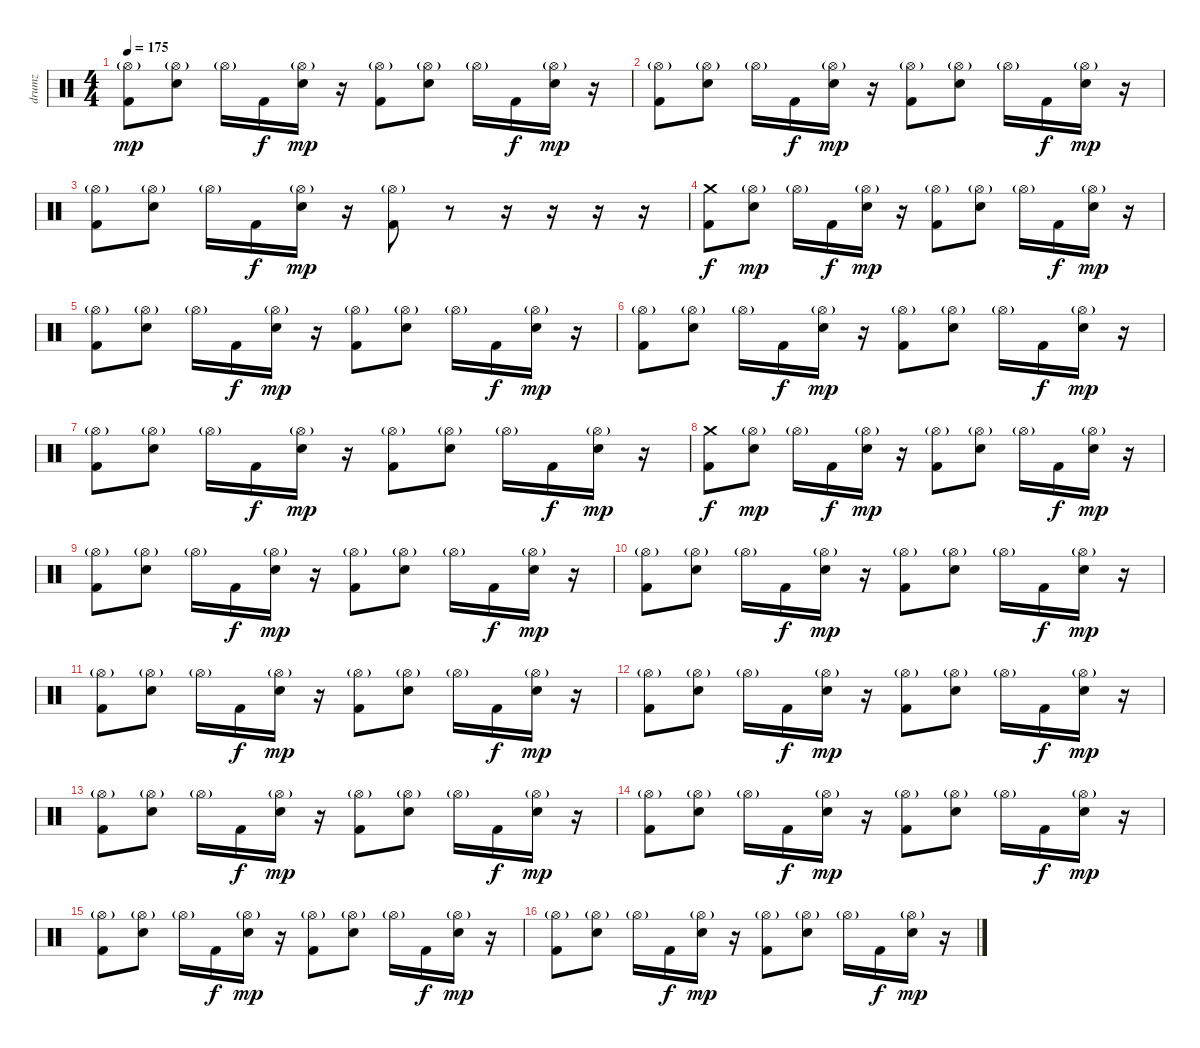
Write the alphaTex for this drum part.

\track ("drumz" "drumz") {instrument percussion}
\staff {score}
\articulation defaults
\ts (4 4)
\tempo 175
\clef neutral
\ks c
("Hi-Hat (open)"{g} "Kick (hit) 2").8{dy mp} ("Hi-Hat (open)"{g} "Electric Snare (hit)").8 "Hi-Hat (open)"{g}.16 "Kick (hit) 2".16{dy f} ("Hi-Hat (open)"{g} "Electric Snare (hit)").16{dy mp} r.16 ("Hi-Hat (open)"{g} "Kick (hit) 2").8 ("Hi-Hat (open)"{g} "Electric Snare (hit)").8 "Hi-Hat (open)"{g}.16 "Kick (hit) 2".16{dy f} ("Hi-Hat (open)"{g} "Electric Snare (hit)").16{dy mp} r.16 |
("Hi-Hat (open)"{g} "Kick (hit) 2").8 ("Hi-Hat (open)"{g} "Electric Snare (hit)").8 "Hi-Hat (open)"{g}.16 "Kick (hit) 2".16{dy f} ("Hi-Hat (open)"{g} "Electric Snare (hit)").16{dy mp} r.16 ("Hi-Hat (open)"{g} "Kick (hit) 2").8 ("Hi-Hat (open)"{g} "Electric Snare (hit)").8 "Hi-Hat (open)"{g}.16 "Kick (hit) 2".16{dy f} ("Hi-Hat (open)"{g} "Electric Snare (hit)").16{dy mp} r.16 |
("Hi-Hat (open)"{g} "Kick (hit) 2").8 ("Hi-Hat (open)"{g} "Electric Snare (hit)").8 "Hi-Hat (open)"{g}.16 "Kick (hit) 2".16{dy f} ("Hi-Hat (open)"{g} "Electric Snare (hit)").16{dy mp} r.16 ("Hi-Hat (open)"{g} "Kick (hit) 2").8 r.8 r.16 r.16 r.16 r.16 |
\section ("" "")
("Crash medium (hit)" "Kick (hit) 2").8{dy f} ("Hi-Hat (open)"{g} "Electric Snare (hit)").8{dy mp} "Hi-Hat (open)"{g}.16 "Kick (hit) 2".16{dy f} ("Hi-Hat (open)"{g} "Electric Snare (hit)").16{dy mp} r.16 ("Hi-Hat (open)"{g} "Kick (hit) 2").8 ("Hi-Hat (open)"{g} "Electric Snare (hit)").8 "Hi-Hat (open)"{g}.16 "Kick (hit) 2".16{dy f} ("Hi-Hat (open)"{g} "Electric Snare (hit)").16{dy mp} r.16 |
("Hi-Hat (open)"{g} "Kick (hit) 2").8 ("Hi-Hat (open)"{g} "Electric Snare (hit)").8 "Hi-Hat (open)"{g}.16 "Kick (hit) 2".16{dy f} ("Hi-Hat (open)"{g} "Electric Snare (hit)").16{dy mp} r.16 ("Hi-Hat (open)"{g} "Kick (hit) 2").8 ("Hi-Hat (open)"{g} "Electric Snare (hit)").8 "Hi-Hat (open)"{g}.16 "Kick (hit) 2".16{dy f} ("Hi-Hat (open)"{g} "Electric Snare (hit)").16{dy mp} r.16 |
("Hi-Hat (open)"{g} "Kick (hit) 2").8 ("Hi-Hat (open)"{g} "Electric Snare (hit)").8 "Hi-Hat (open)"{g}.16 "Kick (hit) 2".16{dy f} ("Hi-Hat (open)"{g} "Electric Snare (hit)").16{dy mp} r.16 ("Hi-Hat (open)"{g} "Kick (hit) 2").8 ("Hi-Hat (open)"{g} "Electric Snare (hit)").8 "Hi-Hat (open)"{g}.16 "Kick (hit) 2".16{dy f} ("Hi-Hat (open)"{g} "Electric Snare (hit)").16{dy mp} r.16 |
("Hi-Hat (open)"{g} "Kick (hit) 2").8 ("Hi-Hat (open)"{g} "Electric Snare (hit)").8 "Hi-Hat (open)"{g}.16 "Kick (hit) 2".16{dy f} ("Hi-Hat (open)"{g} "Electric Snare (hit)").16{dy mp} r.16 ("Hi-Hat (open)"{g} "Kick (hit) 2").8 ("Hi-Hat (open)"{g} "Electric Snare (hit)").8 "Hi-Hat (open)"{g}.16 "Kick (hit) 2".16{dy f} ("Hi-Hat (open)"{g} "Electric Snare (hit)").16{dy mp} r.16 |
("Crash medium (hit)" "Kick (hit) 2").8{dy f} ("Hi-Hat (open)"{g} "Electric Snare (hit)").8{dy mp} "Hi-Hat (open)"{g}.16 "Kick (hit) 2".16{dy f} ("Hi-Hat (open)"{g} "Electric Snare (hit)").16{dy mp} r.16 ("Hi-Hat (open)"{g} "Kick (hit) 2").8 ("Hi-Hat (open)"{g} "Electric Snare (hit)").8 "Hi-Hat (open)"{g}.16 "Kick (hit) 2".16{dy f} ("Hi-Hat (open)"{g} "Electric Snare (hit)").16{dy mp} r.16 |
("Hi-Hat (open)"{g} "Kick (hit) 2").8 ("Hi-Hat (open)"{g} "Electric Snare (hit)").8 "Hi-Hat (open)"{g}.16 "Kick (hit) 2".16{dy f} ("Hi-Hat (open)"{g} "Electric Snare (hit)").16{dy mp} r.16 ("Hi-Hat (open)"{g} "Kick (hit) 2").8 ("Hi-Hat (open)"{g} "Electric Snare (hit)").8 "Hi-Hat (open)"{g}.16 "Kick (hit) 2".16{dy f} ("Hi-Hat (open)"{g} "Electric Snare (hit)").16{dy mp} r.16 |
("Hi-Hat (open)"{g} "Kick (hit) 2").8 ("Hi-Hat (open)"{g} "Electric Snare (hit)").8 "Hi-Hat (open)"{g}.16 "Kick (hit) 2".16{dy f} ("Hi-Hat (open)"{g} "Electric Snare (hit)").16{dy mp} r.16 ("Hi-Hat (open)"{g} "Kick (hit) 2").8 ("Hi-Hat (open)"{g} "Electric Snare (hit)").8 "Hi-Hat (open)"{g}.16 "Kick (hit) 2".16{dy f} ("Hi-Hat (open)"{g} "Electric Snare (hit)").16{dy mp} r.16 |
("Hi-Hat (open)"{g} "Kick (hit) 2").8 ("Hi-Hat (open)"{g} "Electric Snare (hit)").8 "Hi-Hat (open)"{g}.16 "Kick (hit) 2".16{dy f} ("Hi-Hat (open)"{g} "Electric Snare (hit)").16{dy mp} r.16 ("Hi-Hat (open)"{g} "Kick (hit) 2").8 ("Hi-Hat (open)"{g} "Electric Snare (hit)").8 "Hi-Hat (open)"{g}.16 "Kick (hit) 2".16{dy f} ("Hi-Hat (open)"{g} "Electric Snare (hit)").16{dy mp} r.16 |
("Hi-Hat (open)"{g} "Kick (hit) 2").8 ("Hi-Hat (open)"{g} "Electric Snare (hit)").8 "Hi-Hat (open)"{g}.16 "Kick (hit) 2".16{dy f} ("Hi-Hat (open)"{g} "Electric Snare (hit)").16{dy mp} r.16 ("Hi-Hat (open)"{g} "Kick (hit) 2").8 ("Hi-Hat (open)"{g} "Electric Snare (hit)").8 "Hi-Hat (open)"{g}.16 "Kick (hit) 2".16{dy f} ("Hi-Hat (open)"{g} "Electric Snare (hit)").16{dy mp} r.16 |
("Hi-Hat (open)"{g} "Kick (hit) 2").8 ("Hi-Hat (open)"{g} "Electric Snare (hit)").8 "Hi-Hat (open)"{g}.16 "Kick (hit) 2".16{dy f} ("Hi-Hat (open)"{g} "Electric Snare (hit)").16{dy mp} r.16 ("Hi-Hat (open)"{g} "Kick (hit) 2").8 ("Hi-Hat (open)"{g} "Electric Snare (hit)").8 "Hi-Hat (open)"{g}.16 "Kick (hit) 2".16{dy f} ("Hi-Hat (open)"{g} "Electric Snare (hit)").16{dy mp} r.16 |
("Hi-Hat (open)"{g} "Kick (hit) 2").8 ("Hi-Hat (open)"{g} "Electric Snare (hit)").8 "Hi-Hat (open)"{g}.16 "Kick (hit) 2".16{dy f} ("Hi-Hat (open)"{g} "Electric Snare (hit)").16{dy mp} r.16 ("Hi-Hat (open)"{g} "Kick (hit) 2").8 ("Hi-Hat (open)"{g} "Electric Snare (hit)").8 "Hi-Hat (open)"{g}.16 "Kick (hit) 2".16{dy f} ("Hi-Hat (open)"{g} "Electric Snare (hit)").16{dy mp} r.16 |
("Hi-Hat (open)"{g} "Kick (hit) 2").8 ("Hi-Hat (open)"{g} "Electric Snare (hit)").8 "Hi-Hat (open)"{g}.16 "Kick (hit) 2".16{dy f} ("Hi-Hat (open)"{g} "Electric Snare (hit)").16{dy mp} r.16 ("Hi-Hat (open)"{g} "Kick (hit) 2").8 ("Hi-Hat (open)"{g} "Electric Snare (hit)").8 "Hi-Hat (open)"{g}.16 "Kick (hit) 2".16{dy f} ("Hi-Hat (open)"{g} "Electric Snare (hit)").16{dy mp} r.16 |
("Hi-Hat (open)"{g} "Kick (hit) 2").8 ("Hi-Hat (open)"{g} "Electric Snare (hit)").8 "Hi-Hat (open)"{g}.16 "Kick (hit) 2".16{dy f} ("Hi-Hat (open)"{g} "Electric Snare (hit)").16{dy mp} r.16 ("Hi-Hat (open)"{g} "Kick (hit) 2").8 ("Hi-Hat (open)"{g} "Electric Snare (hit)").8 "Hi-Hat (open)"{g}.16 "Kick (hit) 2".16{dy f} ("Hi-Hat (open)"{g} "Electric Snare (hit)").16{dy mp} r.16
